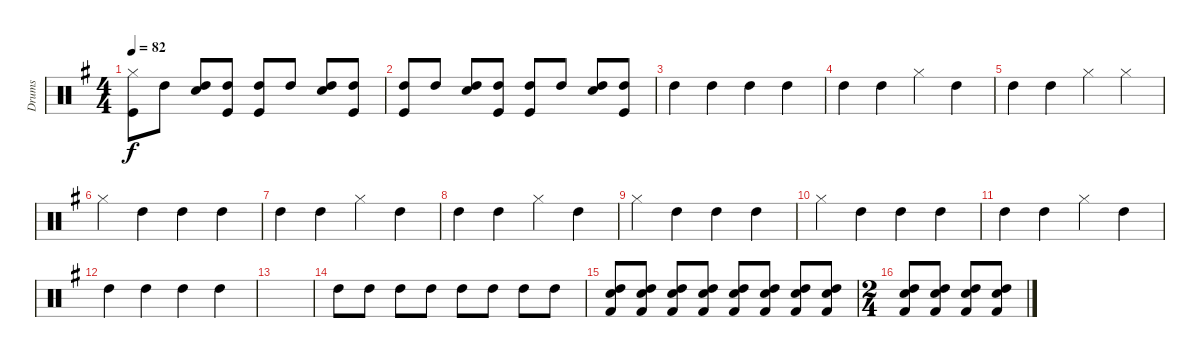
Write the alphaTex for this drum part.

\track ("Drums" "Drums") {instrument percussion}
\staff {score}
\articulation defaults
\ts (4 4)
\tempo 82
\clef neutral
\ks g
("Hi-Hat (closed)" "Kick (hit)").8{dy f} "High Tom (hit)".8 ("High Tom (hit)" "Snare (hit) 2").8 ("High Tom (hit)" "Kick (hit)").8 ("High Tom (hit)" "Kick (hit)").8 "High Tom (hit)".8 ("High Tom (hit)" "Snare (hit) 2").8 ("High Tom (hit)" "Kick (hit)").8 |
("High Tom (hit)" "Kick (hit)").8 "High Tom (hit)".8 ("High Tom (hit)" "Snare (hit) 2").8 ("High Tom (hit)" "Kick (hit)").8 ("High Tom (hit)" "Kick (hit)").8 "High Tom (hit)".8 ("High Tom (hit)" "Snare (hit) 2").8 ("High Tom (hit)" "Kick (hit)").8 |
"High Tom (hit)".4 "High Tom (hit)".4 "High Tom (hit)".4 "High Tom (hit)".4 |
"High Tom (hit)".4 "High Tom (hit)".4 "Hi-Hat (closed)".4 "High Tom (hit)".4 |
"High Tom (hit)".4 "High Tom (hit)".4 "Hi-Hat (closed)".4 "Hi-Hat (closed)".4 |
"Hi-Hat (closed)".4 "High Tom (hit)".4 "High Tom (hit)".4 "High Tom (hit)".4 |
"High Tom (hit)".4 "High Tom (hit)".4 "Hi-Hat (closed)".4 "High Tom (hit)".4 |
"High Tom (hit)".4 "High Tom (hit)".4 "Hi-Hat (closed)".4 "High Tom (hit)".4 |
"Hi-Hat (closed)".4 "High Tom (hit)".4 "High Tom (hit)".4 "High Tom (hit)".4 |
"Hi-Hat (closed)".4 "High Tom (hit)".4 "High Tom (hit)".4 "High Tom (hit)".4 |
"High Tom (hit)".4 "High Tom (hit)".4 "Hi-Hat (closed)".4 "High Tom (hit)".4 |
"High Tom (hit)".4 "High Tom (hit)".4 "High Tom (hit)".4 "High Tom (hit)".4 |
|
"High Tom (hit)".8 "High Tom (hit)".8 "High Tom (hit)".8 "High Tom (hit)".8 "High Tom (hit)".8 "High Tom (hit)".8 "High Tom (hit)".8 "High Tom (hit)".8 |
("High Tom (hit)" "Snare (hit) 2" "Kick (hit) 2").8 ("High Tom (hit)" "Snare (hit) 2" "Kick (hit) 2").8 ("High Tom (hit)" "Snare (hit) 2" "Kick (hit) 2").8 ("High Tom (hit)" "Snare (hit) 2" "Kick (hit) 2").8 ("High Tom (hit)" "Snare (hit) 2" "Kick (hit) 2").8 ("High Tom (hit)" "Snare (hit) 2" "Kick (hit) 2").8 ("High Tom (hit)" "Snare (hit) 2" "Kick (hit) 2").8 ("High Tom (hit)" "Snare (hit) 2" "Kick (hit) 2").8 |
\ts (2 4)
("High Tom (hit)" "Snare (hit) 2" "Kick (hit) 2").8 ("High Tom (hit)" "Snare (hit) 2" "Kick (hit) 2").8 ("High Tom (hit)" "Snare (hit) 2" "Kick (hit) 2").8 ("High Tom (hit)" "Snare (hit) 2" "Kick (hit) 2").8
